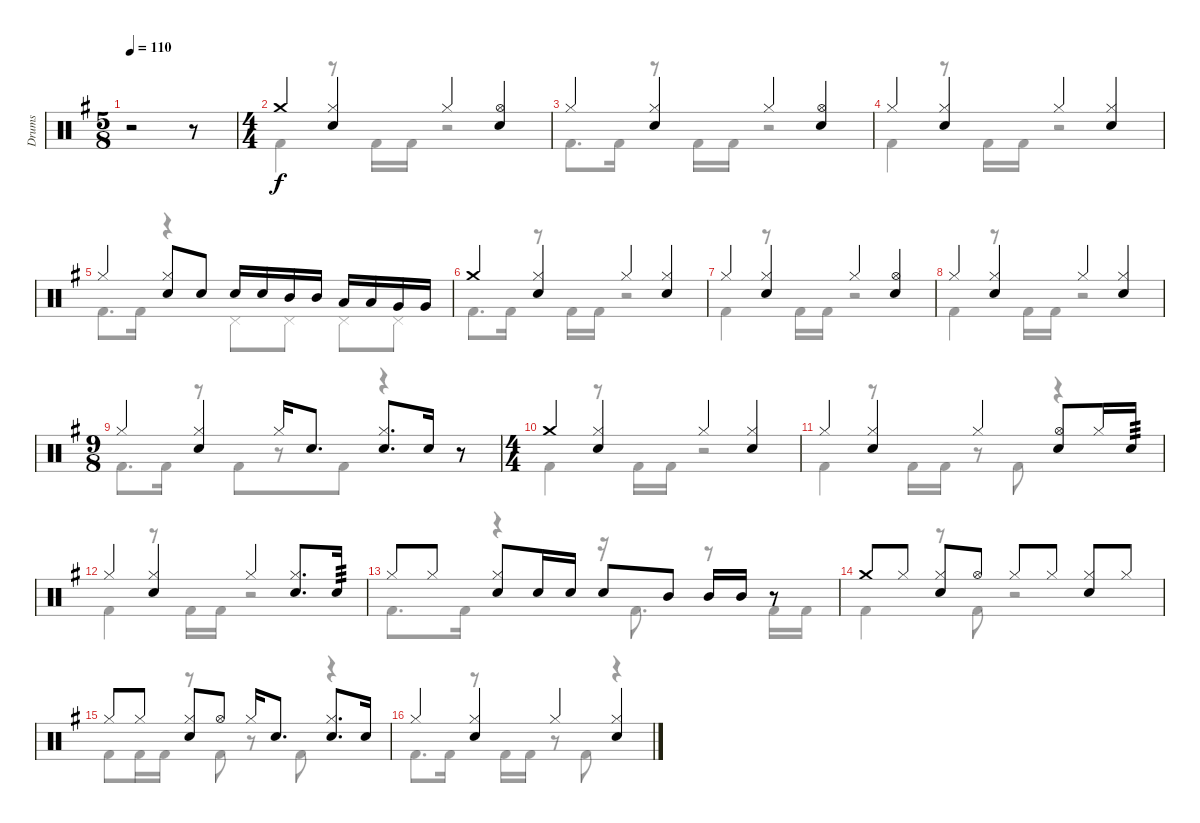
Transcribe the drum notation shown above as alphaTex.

\track ("Drums" "Drums") {instrument percussion}
\staff {score}
\articulation defaults
\voice
\ts (5 8)
\tempo 110
\clef neutral
\ks g
r.2{dy f} r.8 |
\ts (4 4)
"Crash medium (hit)".4 ("Hi-Hat (closed)" "Snare (hit) 2").4 "Hi-Hat (closed)".4 ("Hi-Hat (open)" "Snare (hit) 2").4 |
"Hi-Hat (closed)".4 ("Hi-Hat (closed)" "Snare (hit) 2").4 "Hi-Hat (closed)".4 ("Hi-Hat (open)" "Snare (hit) 2").4 |
"Hi-Hat (closed)".4 ("Hi-Hat (closed)" "Snare (hit) 2").4 "Hi-Hat (closed)".4 ("Hi-Hat (closed)" "Snare (hit) 2").4 |
"Hi-Hat (closed)".4 ("Hi-Hat (closed)" "Snare (hit) 2").8 "Snare (hit) 2".8 "Snare (hit) 2".16 "Snare (hit) 2".16 "Mid Tom (hit)".16 "Mid Tom (hit)".16 "Low Tom (hit)".16 "Low Tom (hit)".16 "Very Low Tom (hit)".16 "Very Low Tom (hit)".16 |
"Crash medium (hit)".4 ("Hi-Hat (closed)" "Snare (hit) 2").4 "Hi-Hat (closed)".4 ("Hi-Hat (closed)" "Snare (hit) 2").4 |
"Hi-Hat (closed)".4 ("Hi-Hat (closed)" "Snare (hit) 2").4 "Hi-Hat (closed)".4 ("Hi-Hat (open)" "Snare (hit) 2").4 |
"Hi-Hat (closed)".4 ("Hi-Hat (closed)" "Snare (hit) 2").4 "Hi-Hat (closed)".4 ("Hi-Hat (closed)" "Snare (hit) 2").4 |
\ts (9 8)
"Hi-Hat (closed)".4 ("Hi-Hat (closed)" "Snare (hit) 2").4 "Hi-Hat (closed)".16 "Snare (hit) 2".8{d} ("Hi-Hat (closed)" "Snare (hit) 2").8{d} "Snare (hit) 2".16 r.8 |
\ts (4 4)
"Crash medium (hit)".4 ("Hi-Hat (closed)" "Snare (hit) 2").4 "Hi-Hat (closed)".4 ("Hi-Hat (closed)" "Snare (hit) 2").4 |
"Hi-Hat (closed)".4 ("Hi-Hat (closed)" "Snare (hit) 2").4 "Hi-Hat (closed)".4 ("Hi-Hat (open)" "Snare (hit) 2").8 "Hi-Hat (closed)".16 "Snare (hit) 2".16{tp 3} |
"Hi-Hat (closed)".4 ("Hi-Hat (closed)" "Snare (hit) 2").4 "Hi-Hat (closed)".4 ("Hi-Hat (closed)" "Snare (hit) 2").8{d} "Snare (hit) 2".16{tp 3} |
"Hi-Hat (closed)".8 "Hi-Hat (closed)".8 ("Hi-Hat (closed)" "Snare (hit) 2").8 "Snare (hit) 2".16 "Snare (hit) 2".16 "Snare (hit) 2".8 "Mid Tom (hit)".8 "Mid Tom (hit)".16 "Mid Tom (hit)".16 r.8 |
"Crash medium (hit)".8 "Hi-Hat (closed)".8 ("Hi-Hat (closed)" "Snare (hit) 2").8 "Hi-Hat (open)".8 "Hi-Hat (closed)".8 "Hi-Hat (closed)".8 ("Hi-Hat (closed)" "Snare (hit) 2").8 "Hi-Hat (closed)".8 |
"Hi-Hat (closed)".8 "Hi-Hat (closed)".8 ("Hi-Hat (closed)" "Snare (hit) 2").8 "Hi-Hat (open)".8 "Hi-Hat (closed)".16 "Snare (hit) 2".8{d} ("Hi-Hat (closed)" "Snare (hit) 2").8{d} "Snare (hit) 2".16 |
"Hi-Hat (closed)".4 ("Hi-Hat (closed)" "Snare (hit) 2").4 "Hi-Hat (closed)".4 ("Hi-Hat (closed)" "Snare (hit) 2").4
\voice
\clef neutral
\ottava regular
\simile none
\ks g
r.2{dy f} r.8 |
"Kick (hit) 2".4 r.8 "Kick (hit) 2".16 "Kick (hit) 2".16 r.2 |
"Kick (hit) 2".8{d} "Kick (hit) 2".16 r.8 "Kick (hit) 2".16 "Kick (hit) 2".16 r.2 |
"Kick (hit) 2".4 r.8 "Kick (hit) 2".16 "Kick (hit) 2".16 r.2 |
"Kick (hit) 2".8{d} "Kick (hit) 2".16 r.4 "Pedal Hi-Hat (hit)".8 "Pedal Hi-Hat (hit)".8 "Pedal Hi-Hat (hit)".8 "Pedal Hi-Hat (hit)".8 |
"Kick (hit) 2".8{d} "Kick (hit) 2".16 r.8 "Kick (hit) 2".16 "Kick (hit) 2".16 r.2 |
"Kick (hit) 2".4 r.8 "Kick (hit) 2".16 "Kick (hit) 2".16 r.2 |
"Kick (hit) 2".4 r.8 "Kick (hit) 2".16 "Kick (hit) 2".16 r.2 |
"Kick (hit) 2".8{d} "Kick (hit) 2".16 r.8 "Kick (hit) 2".8 r.8 "Kick (hit) 2".8 r.4 r.8 |
"Kick (hit) 2".4 r.8 "Kick (hit) 2".16 "Kick (hit) 2".16 r.2 |
"Kick (hit) 2".4 r.8 "Kick (hit) 2".16 "Kick (hit) 2".16 r.8 "Kick (hit) 2".8 r.4 |
"Kick (hit) 2".4 r.8 "Kick (hit) 2".16 "Kick (hit) 2".16 r.2 |
"Kick (hit) 2".8{d} "Kick (hit) 2".16 r.4 r.16 "Kick (hit) 2".8{d} r.8 "Kick (hit) 2".16 "Kick (hit) 2".16 |
"Kick (hit) 2".4 r.8 "Kick (hit) 2".8 r.2 |
"Kick (hit) 2".8 "Kick (hit) 2".16 "Kick (hit) 2".16 r.8 "Kick (hit) 2".8 r.8 "Kick (hit) 2".8 r.4 |
"Kick (hit) 2".8{d} "Kick (hit) 2".16 r.8 "Kick (hit) 2".16 "Kick (hit) 2".16 r.8 "Kick (hit) 2".8 r.4
